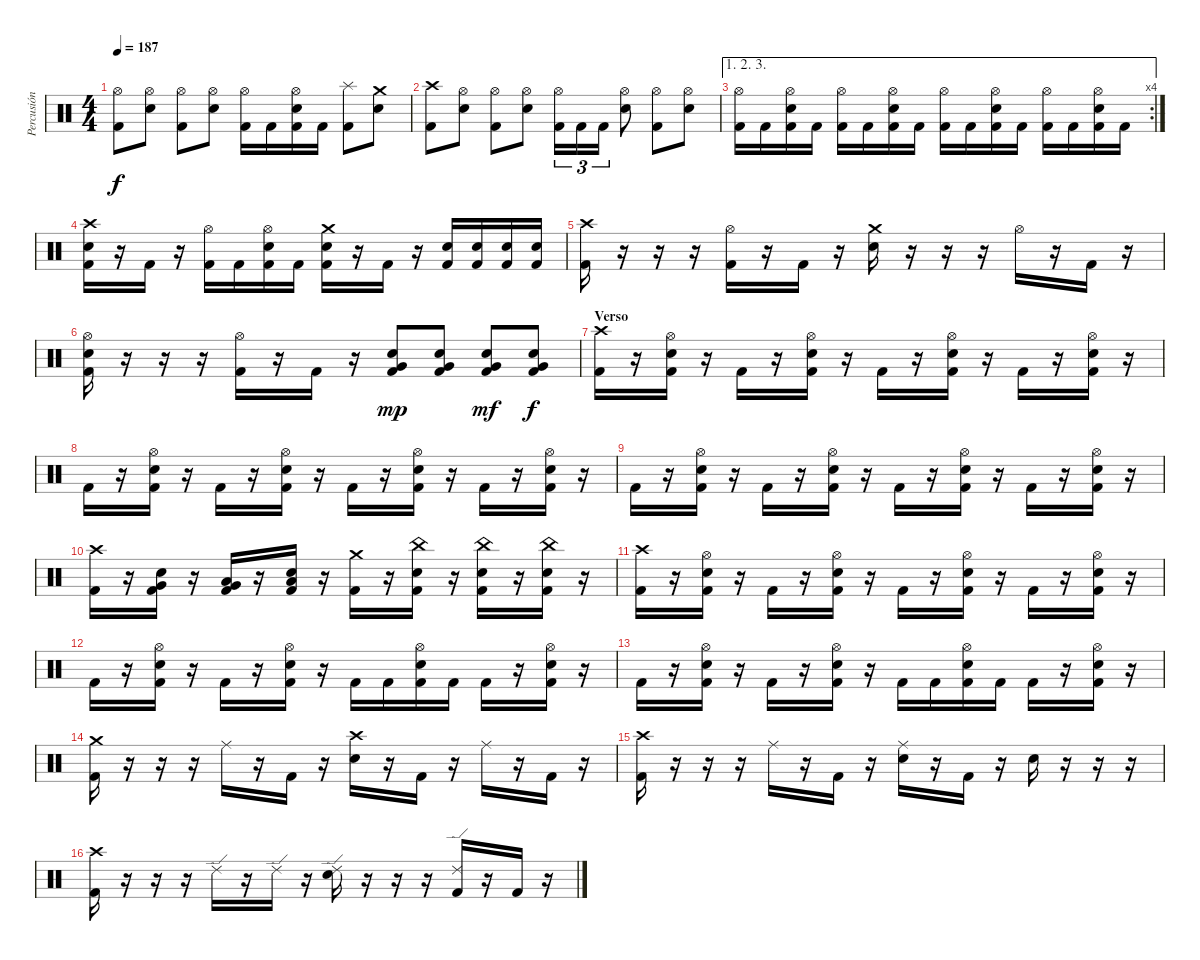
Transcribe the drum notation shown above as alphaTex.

\track ("Percusión" "Percusión") {instrument percussion}
\staff {score}
\articulation defaults
\ts (4 4)
\tempo 187
\clef neutral
\ks c
("Hi-Hat (open)" "Kick (hit) 2").8{dy f} ("Hi-Hat (open)" "Electric Snare (hit)").8 ("Hi-Hat (open)" "Kick (hit) 2").8 ("Hi-Hat (open)" "Electric Snare (hit)").8 ("Hi-Hat (open)" "Kick (hit) 2").16 "Kick (hit) 2".16 ("Hi-Hat (open)" "Electric Snare (hit)" "Kick (hit) 2").16 "Kick (hit) 2".16 ("Splash (hit)" "Kick (hit) 2").8 ("Crash medium (hit)" "Electric Snare (hit)").8 |
("Crash high (hit)" "Kick (hit) 2").8 ("Hi-Hat (open)" "Electric Snare (hit)").8 ("Hi-Hat (open)" "Kick (hit) 2").8 ("Hi-Hat (open)" "Electric Snare (hit)").8 ("Hi-Hat (open)" "Kick (hit) 2").16{tu (3 2)} "Kick (hit) 2".16{tu (3 2)} "Kick (hit) 2".16{tu (3 2)} ("Hi-Hat (open)" "Electric Snare (hit)").8 ("Hi-Hat (open)" "Kick (hit) 2").8 ("Hi-Hat (open)" "Electric Snare (hit)").8 |
\ae (1 2 3)
\rc 4
("Hi-Hat (open)" "Kick (hit) 2").16 "Kick (hit) 2".16 ("Hi-Hat (open)" "Electric Snare (hit)" "Kick (hit) 2").16 "Kick (hit) 2".16 ("Hi-Hat (open)" "Kick (hit) 2").16 "Kick (hit) 2".16 ("Hi-Hat (open)" "Electric Snare (hit)" "Kick (hit) 2").16 "Kick (hit) 2".16 ("Hi-Hat (open)" "Kick (hit) 2").16 "Kick (hit) 2".16 ("Hi-Hat (open)" "Electric Snare (hit)" "Kick (hit) 2").16 "Kick (hit) 2".16 ("Hi-Hat (open)" "Kick (hit) 2").16 "Kick (hit) 2".16 ("Hi-Hat (open)" "Electric Snare (hit)" "Kick (hit) 2").16 "Kick (hit) 2".16 |
("Crash high (hit)" "Electric Snare (hit)" "Kick (hit) 2").16 r.16 "Kick (hit) 2".16 r.16 ("Hi-Hat (open)" "Kick (hit) 2").16 "Kick (hit) 2".16 ("Hi-Hat (open)" "Electric Snare (hit)" "Kick (hit) 2").16 "Kick (hit) 2".16 ("Crash medium (hit)" "Electric Snare (hit)" "Kick (hit) 2").16 r.16 "Kick (hit) 2".16 r.16 ("Electric Snare (hit)" "Kick (hit) 2").16 ("Electric Snare (hit)" "Kick (hit) 2").16 ("Electric Snare (hit)" "Kick (hit) 2").16 ("Electric Snare (hit)" "Kick (hit) 2").16 |
("Crash high (hit)" "Kick (hit) 2").16 r.16 r.16 r.16 ("Hi-Hat (open)" "Kick (hit) 2").16 r.16 "Kick (hit) 2".16 r.16 ("Crash medium (hit)" "Electric Snare (hit)").16 r.16 r.16 r.16 "Hi-Hat (open)".16 r.16 "Kick (hit) 2".16 r.16 |
("Hi-Hat (open)" "Electric Snare (hit)" "Kick (hit) 2").16 r.16 r.16 r.16 ("Hi-Hat (open)" "Kick (hit) 2").16 r.16 "Kick (hit) 2".16 r.16 ("Very Low Tom (hit)" "Electric Snare (hit)" "Kick (hit) 2").8{dy mp} ("Very Low Tom (hit)" "Electric Snare (hit)" "Kick (hit) 2").8 ("Very Low Tom (hit)" "Electric Snare (hit)" "Kick (hit) 2").8{dy mf} ("Very Low Tom (hit)" "Electric Snare (hit)" "Kick (hit) 2").8{dy f} |
\section ("" "Verso")
("Crash high (hit)" "Kick (hit) 2").16 r.16 ("Hi-Hat (open)" "Electric Snare (hit)" "Kick (hit) 2").16 r.16 "Kick (hit) 2".16 r.16 ("Hi-Hat (open)" "Electric Snare (hit)" "Kick (hit) 2").16 r.16 "Kick (hit) 2".16 r.16 ("Hi-Hat (open)" "Electric Snare (hit)" "Kick (hit) 2").16 r.16 "Kick (hit) 2".16 r.16 ("Hi-Hat (open)" "Electric Snare (hit)" "Kick (hit) 2").16 r.16 |
"Kick (hit) 2".16 r.16 ("Hi-Hat (open)" "Electric Snare (hit)" "Kick (hit) 2").16 r.16 "Kick (hit) 2".16 r.16 ("Hi-Hat (open)" "Electric Snare (hit)" "Kick (hit) 2").16 r.16 "Kick (hit) 2".16 r.16 ("Hi-Hat (open)" "Electric Snare (hit)" "Kick (hit) 2").16 r.16 "Kick (hit) 2".16 r.16 ("Hi-Hat (open)" "Electric Snare (hit)" "Kick (hit) 2").16 r.16 |
"Kick (hit) 2".16 r.16 ("Hi-Hat (open)" "Electric Snare (hit)" "Kick (hit) 2").16 r.16 "Kick (hit) 2".16 r.16 ("Hi-Hat (open)" "Electric Snare (hit)" "Kick (hit) 2").16 r.16 "Kick (hit) 2".16 r.16 ("Hi-Hat (open)" "Electric Snare (hit)" "Kick (hit) 2").16 r.16 "Kick (hit) 2".16 r.16 ("Hi-Hat (open)" "Electric Snare (hit)" "Kick (hit) 2").16 r.16 |
("Crash high (hit)" "Kick (hit) 2").16 r.16 ("Very Low Tom (hit)" "Electric Snare (hit)" "Kick (hit) 2").16 r.16 ("Very Low Tom (hit)" "Low Tom (hit)" "Kick (hit) 2").16 r.16 ("Low Tom (hit)" "Electric Snare (hit)" "Kick (hit) 2").16 r.16 ("Crash medium (hit)" "Kick (hit) 2").16 r.16 ("China (hit)" "Electric Snare (hit)" "Kick (hit) 2").16 r.16 ("China (hit)" "Electric Snare (hit)" "Kick (hit) 2").16 r.16 ("China (hit)" "Electric Snare (hit)" "Kick (hit) 2").16 r.16 |
("Crash high (hit)" "Kick (hit) 2").16 r.16 ("Hi-Hat (open)" "Electric Snare (hit)" "Kick (hit) 2").16 r.16 "Kick (hit) 2".16 r.16 ("Hi-Hat (open)" "Electric Snare (hit)" "Kick (hit) 2").16 r.16 "Kick (hit) 2".16 r.16 ("Hi-Hat (open)" "Electric Snare (hit)" "Kick (hit) 2").16 r.16 "Kick (hit) 2".16 r.16 ("Hi-Hat (open)" "Electric Snare (hit)" "Kick (hit) 2").16 r.16 |
"Kick (hit) 2".16 r.16 ("Hi-Hat (open)" "Electric Snare (hit)" "Kick (hit) 2").16 r.16 "Kick (hit) 2".16 r.16 ("Hi-Hat (open)" "Electric Snare (hit)" "Kick (hit) 2").16 r.16 "Kick (hit) 2".16 "Kick (hit) 2".16 ("Hi-Hat (open)" "Electric Snare (hit)" "Kick (hit) 2").16 "Kick (hit) 2".16 "Kick (hit) 2".16 r.16 ("Hi-Hat (open)" "Electric Snare (hit)" "Kick (hit) 2").16 r.16 |
"Kick (hit) 2".16 r.16 ("Hi-Hat (open)" "Electric Snare (hit)" "Kick (hit) 2").16 r.16 "Kick (hit) 2".16 r.16 ("Hi-Hat (open)" "Electric Snare (hit)" "Kick (hit) 2").16 r.16 "Kick (hit) 2".16 "Kick (hit) 2".16 ("Hi-Hat (open)" "Electric Snare (hit)" "Kick (hit) 2").16 "Kick (hit) 2".16 "Kick (hit) 2".16 r.16 ("Hi-Hat (open)" "Electric Snare (hit)" "Kick (hit) 2").16 r.16 |
("Crash medium (hit)" "Kick (hit) 2").16 r.16 r.16 r.16 "Ride (middle)".16 r.16 "Kick (hit) 2".16 r.16 ("Crash high (hit)" "Electric Snare (hit)").16 r.16 "Kick (hit) 2".16 r.16 "Ride (middle)".16 r.16 "Kick (hit) 2".16 r.16 |
("Crash high (hit)" "Kick (hit) 2").16 r.16 r.16 r.16 "Ride (middle)".16 r.16 "Kick (hit) 2".16 r.16 ("Ride (middle)" "Electric Snare (hit)").16 r.16 "Kick (hit) 2".16 r.16 "Electric Snare (hit)".16 r.16 r.16 r.16 |
\section ("" "")
("Crash high (hit)" "Kick (hit) 2").16 r.16 r.16 r.16 "Ride (edge) 2".16 r.16 "Ride (edge) 2".16 r.16 ("Ride (edge) 2" "Electric Snare (hit)").16 r.16 r.16 r.16 ("Ride (edge) 2" "Kick (hit) 2").16 r.16 "Kick (hit) 2".16 r.16
